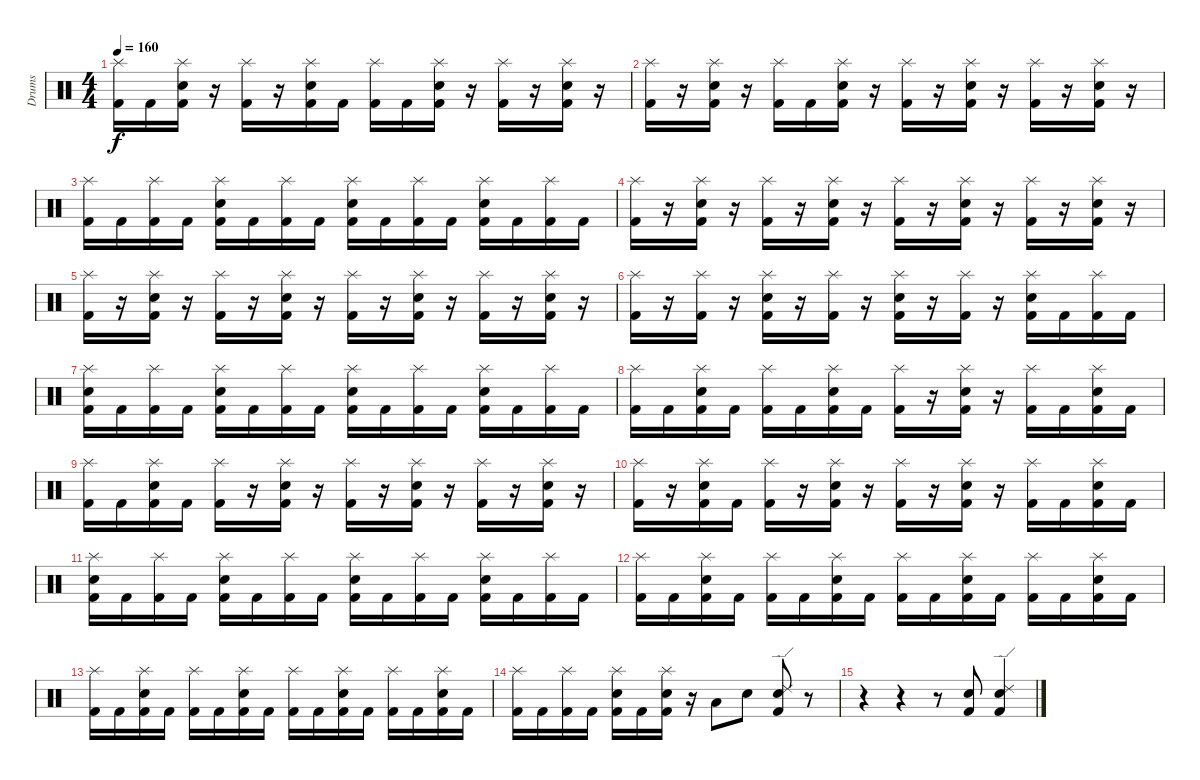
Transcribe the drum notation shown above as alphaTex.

\track ("Drums" "Drums") {instrument percussion}
\staff {score}
\articulation defaults
\ts (4 4)
\tempo 160
\clef neutral
\ks c
("Splash (hit)" "Kick (hit) 2").16{dy f} "Kick (hit) 2".16 ("Splash (hit)" "Electric Snare (hit)" "Kick (hit) 2").16 r.16 ("Splash (hit)" "Kick (hit) 2").16 r.16 ("Splash (hit)" "Electric Snare (hit)" "Kick (hit) 2").16 "Kick (hit) 2".16 ("Splash (hit)" "Kick (hit) 2").16 "Kick (hit) 2".16 ("Splash (hit)" "Electric Snare (hit)" "Kick (hit) 2").16 r.16 ("Splash (hit)" "Kick (hit) 2").16 r.16 ("Splash (hit)" "Electric Snare (hit)" "Kick (hit) 2").16 r.16 |
("Splash (hit)" "Kick (hit) 2").16 r.16 ("Splash (hit)" "Electric Snare (hit)" "Kick (hit) 2").16 r.16 ("Splash (hit)" "Kick (hit) 2").16 "Kick (hit) 2".16 ("Splash (hit)" "Electric Snare (hit)" "Kick (hit) 2").16 r.16 ("Splash (hit)" "Kick (hit) 2").16 r.16 ("Splash (hit)" "Electric Snare (hit)" "Kick (hit) 2").16 r.16 ("Splash (hit)" "Kick (hit) 2").16 r.16 ("Splash (hit)" "Electric Snare (hit)" "Kick (hit) 2").16 r.16 |
("Splash (hit)" "Kick (hit) 2").16 "Kick (hit) 2".16 ("Splash (hit)" "Kick (hit) 2").16 "Kick (hit) 2".16 ("Splash (hit)" "Electric Snare (hit)" "Kick (hit) 2").16 "Kick (hit) 2".16 ("Splash (hit)" "Kick (hit) 2").16 "Kick (hit) 2".16 ("Splash (hit)" "Electric Snare (hit)" "Kick (hit) 2").16 "Kick (hit) 2".16 ("Splash (hit)" "Kick (hit) 2").16 "Kick (hit) 2".16 ("Splash (hit)" "Electric Snare (hit)" "Kick (hit) 2").16 "Kick (hit) 2".16 ("Splash (hit)" "Kick (hit) 2").16 "Kick (hit) 2".16 |
("Splash (hit)" "Kick (hit) 2").16 r.16 ("Splash (hit)" "Electric Snare (hit)" "Kick (hit) 2").16 r.16 ("Splash (hit)" "Kick (hit) 2").16 r.16 ("Splash (hit)" "Electric Snare (hit)" "Kick (hit) 2").16 r.16 ("Splash (hit)" "Kick (hit) 2").16 r.16 ("Splash (hit)" "Electric Snare (hit)" "Kick (hit) 2").16 r.16 ("Splash (hit)" "Kick (hit) 2").16 r.16 ("Splash (hit)" "Electric Snare (hit)" "Kick (hit) 2").16 r.16 |
("Splash (hit)" "Kick (hit) 2").16 r.16 ("Splash (hit)" "Electric Snare (hit)" "Kick (hit) 2").16 r.16 ("Splash (hit)" "Kick (hit) 2").16 r.16 ("Splash (hit)" "Electric Snare (hit)" "Kick (hit) 2").16 r.16 ("Splash (hit)" "Kick (hit) 2").16 r.16 ("Splash (hit)" "Electric Snare (hit)" "Kick (hit) 2").16 r.16 ("Splash (hit)" "Kick (hit) 2").16 r.16 ("Splash (hit)" "Electric Snare (hit)" "Kick (hit) 2").16 r.16 |
("Splash (hit)" "Kick (hit) 2").16 r.16 ("Splash (hit)" "Kick (hit) 2").16 r.16 ("Splash (hit)" "Electric Snare (hit)" "Kick (hit) 2").16 r.16 ("Splash (hit)" "Kick (hit) 2").16 r.16 ("Splash (hit)" "Electric Snare (hit)" "Kick (hit) 2").16 r.16 ("Splash (hit)" "Kick (hit) 2").16 r.16 ("Splash (hit)" "Electric Snare (hit)" "Kick (hit) 2").16 "Kick (hit) 2".16 ("Splash (hit)" "Kick (hit) 2").16 "Kick (hit) 2".16 |
("Splash (hit)" "Electric Snare (hit)" "Kick (hit) 2").16 "Kick (hit) 2".16 ("Splash (hit)" "Kick (hit) 2").16 "Kick (hit) 2".16 ("Splash (hit)" "Electric Snare (hit)" "Kick (hit) 2").16 "Kick (hit) 2".16 ("Splash (hit)" "Kick (hit) 2").16 "Kick (hit) 2".16 ("Splash (hit)" "Electric Snare (hit)" "Kick (hit) 2").16 "Kick (hit) 2".16 ("Splash (hit)" "Kick (hit) 2").16 "Kick (hit) 2".16 ("Splash (hit)" "Electric Snare (hit)" "Kick (hit) 2").16 "Kick (hit) 2".16 ("Splash (hit)" "Kick (hit) 2").16 "Kick (hit) 2".16 |
("Splash (hit)" "Kick (hit) 2").16 "Kick (hit) 2".16 ("Splash (hit)" "Electric Snare (hit)" "Kick (hit) 2").16 "Kick (hit) 2".16 ("Splash (hit)" "Kick (hit) 2").16 "Kick (hit) 2".16 ("Splash (hit)" "Electric Snare (hit)" "Kick (hit) 2").16 "Kick (hit) 2".16 ("Splash (hit)" "Kick (hit) 2").16 r.16 ("Splash (hit)" "Electric Snare (hit)" "Kick (hit) 2").16 r.16 ("Splash (hit)" "Kick (hit) 2").16 "Kick (hit) 2".16 ("Splash (hit)" "Electric Snare (hit)" "Kick (hit) 2").16 "Kick (hit) 2".16 |
("Splash (hit)" "Kick (hit) 2").16 "Kick (hit) 2".16 ("Splash (hit)" "Electric Snare (hit)" "Kick (hit) 2").16 "Kick (hit) 2".16 ("Splash (hit)" "Kick (hit) 2").16 r.16 ("Splash (hit)" "Electric Snare (hit)" "Kick (hit) 2").16 r.16 ("Splash (hit)" "Kick (hit) 2").16 r.16 ("Splash (hit)" "Electric Snare (hit)" "Kick (hit) 2").16 r.16 ("Splash (hit)" "Kick (hit) 2").16 r.16 ("Splash (hit)" "Electric Snare (hit)" "Kick (hit) 2").16 r.16 |
("Splash (hit)" "Kick (hit) 2").16 r.16 ("Splash (hit)" "Electric Snare (hit)" "Kick (hit) 2").16 "Kick (hit) 2".16 ("Splash (hit)" "Kick (hit) 2").16 r.16 ("Splash (hit)" "Electric Snare (hit)" "Kick (hit) 2").16 r.16 ("Splash (hit)" "Kick (hit) 2").16 r.16 ("Splash (hit)" "Electric Snare (hit)" "Kick (hit) 2").16 r.16 ("Splash (hit)" "Kick (hit) 2").16 "Kick (hit) 2".16 ("Splash (hit)" "Electric Snare (hit)" "Kick (hit) 2").16 "Kick (hit) 2".16 |
("Splash (hit)" "Electric Snare (hit)" "Kick (hit) 2").16 "Kick (hit) 2".16 ("Splash (hit)" "Kick (hit) 2").16 "Kick (hit) 2".16 ("Splash (hit)" "Electric Snare (hit)" "Kick (hit) 2").16 "Kick (hit) 2".16 ("Splash (hit)" "Kick (hit) 2").16 "Kick (hit) 2".16 ("Splash (hit)" "Electric Snare (hit)" "Kick (hit) 2").16 "Kick (hit) 2".16 ("Splash (hit)" "Kick (hit) 2").16 "Kick (hit) 2".16 ("Splash (hit)" "Electric Snare (hit)" "Kick (hit) 2").16 "Kick (hit) 2".16 ("Splash (hit)" "Kick (hit) 2").16 "Kick (hit) 2".16 |
("Splash (hit)" "Kick (hit) 2").16 "Kick (hit) 2".16 ("Splash (hit)" "Electric Snare (hit)" "Kick (hit) 2").16 "Kick (hit) 2".16 ("Splash (hit)" "Kick (hit) 2").16 "Kick (hit) 2".16 ("Splash (hit)" "Electric Snare (hit)" "Kick (hit) 2").16 "Kick (hit) 2".16 ("Splash (hit)" "Kick (hit) 2").16 "Kick (hit) 2".16 ("Splash (hit)" "Electric Snare (hit)" "Kick (hit) 2").16 "Kick (hit) 2".16 ("Splash (hit)" "Kick (hit) 2").16 "Kick (hit) 2".16 ("Splash (hit)" "Electric Snare (hit)" "Kick (hit) 2").16 "Kick (hit) 2".16 |
("Splash (hit)" "Kick (hit) 2").16 "Kick (hit) 2".16 ("Splash (hit)" "Electric Snare (hit)" "Kick (hit) 2").16 "Kick (hit) 2".16 ("Splash (hit)" "Kick (hit) 2").16 "Kick (hit) 2".16 ("Splash (hit)" "Electric Snare (hit)" "Kick (hit) 2").16 "Kick (hit) 2".16 ("Splash (hit)" "Kick (hit) 2").16 "Kick (hit) 2".16 ("Splash (hit)" "Electric Snare (hit)" "Kick (hit) 2").16 "Kick (hit) 2".16 ("Splash (hit)" "Kick (hit) 2").16 "Kick (hit) 2".16 ("Splash (hit)" "Electric Snare (hit)" "Kick (hit) 2").16 "Kick (hit) 2".16 |
("Splash (hit)" "Kick (hit) 2").16 "Kick (hit) 2".16 ("Splash (hit)" "Kick (hit) 2").16 "Kick (hit) 2".16 ("Splash (hit)" "Electric Snare (hit)" "Kick (hit) 2").16 "Kick (hit) 2".16 ("Splash (hit)" "Electric Snare (hit)" "Kick (hit) 2").16 r.16 "Low Tom (hit)".8 "Electric Snare (hit)".8 ("Ride (edge) 2" "Electric Snare (hit)" "Kick (hit) 2").8 r.8 |
r.4 r.4 r.8 ("Electric Snare (hit)" "Kick (hit) 2").8 ("Ride (edge) 2" "Electric Snare (hit)" "Kick (hit) 2").4
